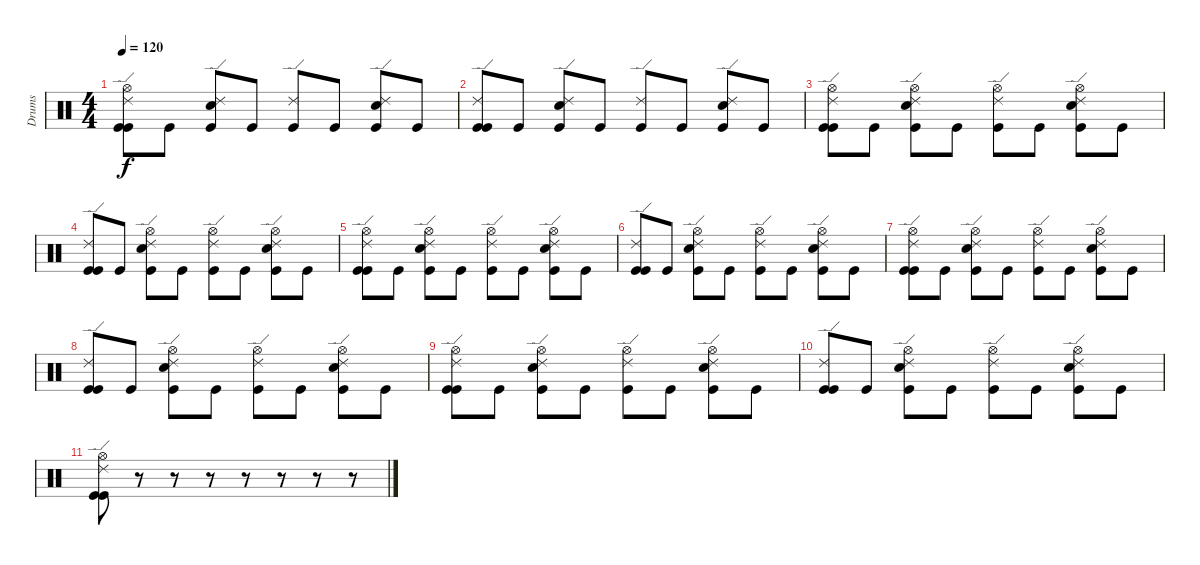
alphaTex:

\track ("Drums" "Drums") {instrument percussion}
\staff {score}
\articulation defaults
\ts (4 4)
\tempo 120
\clef neutral
\ks c
("Hi-Hat (open)" "Ride (edge) 2" "Kick (hit)" "Kick (hit)").8{dy f} "Kick (hit)".8 ("Ride (edge) 2" "Snare (hit) 2" "Kick (hit)").8 "Kick (hit)".8 ("Ride (edge) 2" "Kick (hit)").8 "Kick (hit)".8 ("Ride (edge) 2" "Snare (hit) 2" "Kick (hit)").8 "Kick (hit)".8 |
("Ride (edge) 2" "Kick (hit)" "Kick (hit)").8 "Kick (hit)".8 ("Ride (edge) 2" "Snare (hit) 2" "Kick (hit)").8 "Kick (hit)".8 ("Ride (edge) 2" "Kick (hit)").8 "Kick (hit)".8 ("Ride (edge) 2" "Snare (hit) 2" "Kick (hit)").8 "Kick (hit)".8 |
("Hi-Hat (open)" "Ride (edge) 2" "Kick (hit)" "Kick (hit)").8 "Kick (hit)".8 ("Hi-Hat (open)" "Ride (edge) 2" "Snare (hit) 2" "Kick (hit)").8 "Kick (hit)".8 ("Hi-Hat (open)" "Ride (edge) 2" "Kick (hit)").8 "Kick (hit)".8 ("Hi-Hat (open)" "Ride (edge) 2" "Snare (hit) 2" "Kick (hit)").8 "Kick (hit)".8 |
("Ride (edge) 2" "Kick (hit)" "Kick (hit)").8 "Kick (hit)".8 ("Hi-Hat (open)" "Ride (edge) 2" "Snare (hit) 2" "Kick (hit)").8 "Kick (hit)".8 ("Hi-Hat (open)" "Ride (edge) 2" "Kick (hit)").8 "Kick (hit)".8 ("Hi-Hat (open)" "Ride (edge) 2" "Snare (hit) 2" "Kick (hit)").8 "Kick (hit)".8 |
("Hi-Hat (open)" "Ride (edge) 2" "Kick (hit)" "Kick (hit)").8 "Kick (hit)".8 ("Hi-Hat (open)" "Ride (edge) 2" "Snare (hit) 2" "Kick (hit)").8 "Kick (hit)".8 ("Hi-Hat (open)" "Ride (edge) 2" "Kick (hit)").8 "Kick (hit)".8 ("Hi-Hat (open)" "Ride (edge) 2" "Snare (hit) 2" "Kick (hit)").8 "Kick (hit)".8 |
("Ride (edge) 2" "Kick (hit)" "Kick (hit)").8 "Kick (hit)".8 ("Hi-Hat (open)" "Ride (edge) 2" "Snare (hit) 2" "Kick (hit)").8 "Kick (hit)".8 ("Hi-Hat (open)" "Ride (edge) 2" "Kick (hit)").8 "Kick (hit)".8 ("Hi-Hat (open)" "Ride (edge) 2" "Snare (hit) 2" "Kick (hit)").8 "Kick (hit)".8 |
("Hi-Hat (open)" "Ride (edge) 2" "Kick (hit)" "Kick (hit)").8 "Kick (hit)".8 ("Hi-Hat (open)" "Ride (edge) 2" "Snare (hit) 2" "Kick (hit)").8 "Kick (hit)".8 ("Hi-Hat (open)" "Ride (edge) 2" "Kick (hit)").8 "Kick (hit)".8 ("Hi-Hat (open)" "Ride (edge) 2" "Snare (hit) 2" "Kick (hit)").8 "Kick (hit)".8 |
("Ride (edge) 2" "Kick (hit)" "Kick (hit)").8 "Kick (hit)".8 ("Hi-Hat (open)" "Ride (edge) 2" "Snare (hit) 2" "Kick (hit)").8 "Kick (hit)".8 ("Hi-Hat (open)" "Ride (edge) 2" "Kick (hit)").8 "Kick (hit)".8 ("Hi-Hat (open)" "Ride (edge) 2" "Snare (hit) 2" "Kick (hit)").8 "Kick (hit)".8 |
("Hi-Hat (open)" "Ride (edge) 2" "Kick (hit)" "Kick (hit)").8 "Kick (hit)".8 ("Hi-Hat (open)" "Ride (edge) 2" "Snare (hit) 2" "Kick (hit)").8 "Kick (hit)".8 ("Hi-Hat (open)" "Ride (edge) 2" "Kick (hit)").8 "Kick (hit)".8 ("Hi-Hat (open)" "Ride (edge) 2" "Snare (hit) 2" "Kick (hit)").8 "Kick (hit)".8 |
("Ride (edge) 2" "Kick (hit)" "Kick (hit)").8 "Kick (hit)".8 ("Hi-Hat (open)" "Ride (edge) 2" "Snare (hit) 2" "Kick (hit)").8 "Kick (hit)".8 ("Hi-Hat (open)" "Ride (edge) 2" "Kick (hit)").8 "Kick (hit)".8 ("Hi-Hat (open)" "Ride (edge) 2" "Snare (hit) 2" "Kick (hit)").8 "Kick (hit)".8 |
("Hi-Hat (open)" "Ride (edge) 2" "Kick (hit)" "Kick (hit)").8 r.8 r.8 r.8 r.8 r.8 r.8 r.8
